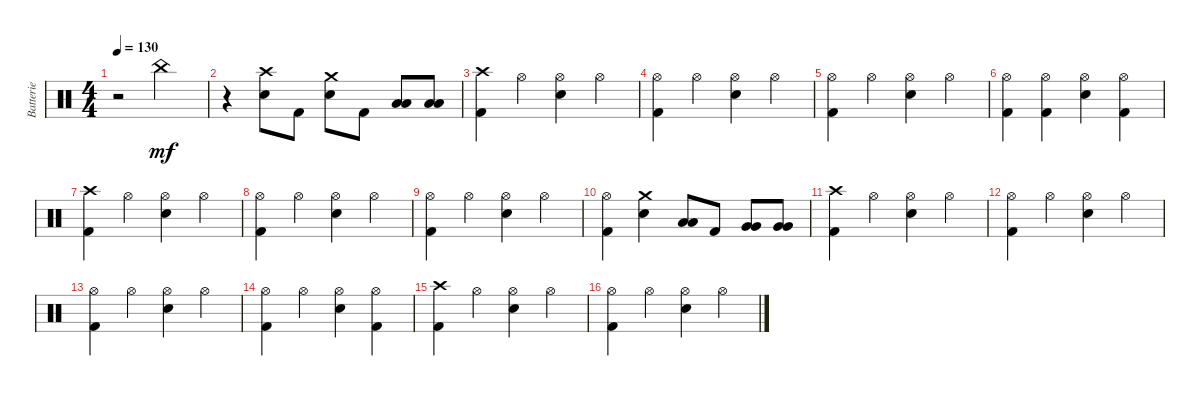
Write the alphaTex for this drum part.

\track ("Batterie" "Batterie") {instrument percussion}
\staff {score}
\articulation defaults
\ts (4 4)
\tempo 130
\clef neutral
\ks c
r.2{dy mf} "China (hit)".2 |
r.4 ("Crash high (hit)" "Electric Snare (hit)").8 "Kick (hit) 2".8 ("Crash medium (hit)" "Electric Snare (hit)").8 "Kick (hit) 2".8 ("Low Tom (hit)" "Low Floor Tom (hit)").8 ("Low Tom (hit)" "Low Floor Tom (hit)").8 |
("Crash high (hit)" "Kick (hit) 2").4 "Hi-Hat (open)".4 ("Hi-Hat (open)" "Electric Snare (hit)").4 "Hi-Hat (open)".4 |
("Hi-Hat (open)" "Kick (hit) 2").4 "Hi-Hat (open)".4 ("Hi-Hat (open)" "Electric Snare (hit)").4 "Hi-Hat (open)".4 |
("Hi-Hat (open)" "Kick (hit) 2").4 "Hi-Hat (open)".4 ("Hi-Hat (open)" "Electric Snare (hit)").4 "Hi-Hat (open)".4 |
("Hi-Hat (open)" "Kick (hit) 2").4 ("Hi-Hat (open)" "Kick (hit) 2").4 ("Hi-Hat (open)" "Electric Snare (hit)").4 ("Hi-Hat (open)" "Kick (hit) 2").4 |
("Crash high (hit)" "Kick (hit) 2").4 "Hi-Hat (open)".4 ("Hi-Hat (open)" "Electric Snare (hit)").4 "Hi-Hat (open)".4 |
("Hi-Hat (open)" "Kick (hit) 2").4 "Hi-Hat (open)".4 ("Hi-Hat (open)" "Electric Snare (hit)").4 "Hi-Hat (open)".4 |
("Hi-Hat (open)" "Kick (hit) 2").4 "Hi-Hat (open)".4 ("Hi-Hat (open)" "Electric Snare (hit)").4 "Hi-Hat (open)".4 |
("Hi-Hat (open)" "Kick (hit) 2").4 ("Crash medium (hit)" "Electric Snare (hit)").4 ("Low Tom (hit)" "Low Tom (hit)").8 "Kick (hit) 2".8 ("Very Low Tom (hit)" "Very Low Tom (hit)").8 ("Very Low Tom (hit)" "Very Low Tom (hit)").8 |
("Crash high (hit)" "Kick (hit) 2").4 "Hi-Hat (open)".4 ("Hi-Hat (open)" "Electric Snare (hit)").4 "Hi-Hat (open)".4 |
("Hi-Hat (open)" "Kick (hit) 2").4 "Hi-Hat (open)".4 ("Hi-Hat (open)" "Electric Snare (hit)").4 "Hi-Hat (open)".4 |
("Hi-Hat (open)" "Kick (hit) 2").4 "Hi-Hat (open)".4 ("Hi-Hat (open)" "Electric Snare (hit)").4 "Hi-Hat (open)".4 |
("Hi-Hat (open)" "Kick (hit) 2").4 "Hi-Hat (open)".4 ("Hi-Hat (open)" "Electric Snare (hit)").4 ("Hi-Hat (open)" "Kick (hit) 2").4 |
("Crash high (hit)" "Kick (hit) 2").4 "Hi-Hat (open)".4 ("Hi-Hat (open)" "Electric Snare (hit)").4 "Hi-Hat (open)".4 |
("Hi-Hat (open)" "Kick (hit) 2").4 "Hi-Hat (open)".4 ("Hi-Hat (open)" "Electric Snare (hit)").4 "Hi-Hat (open)".4
